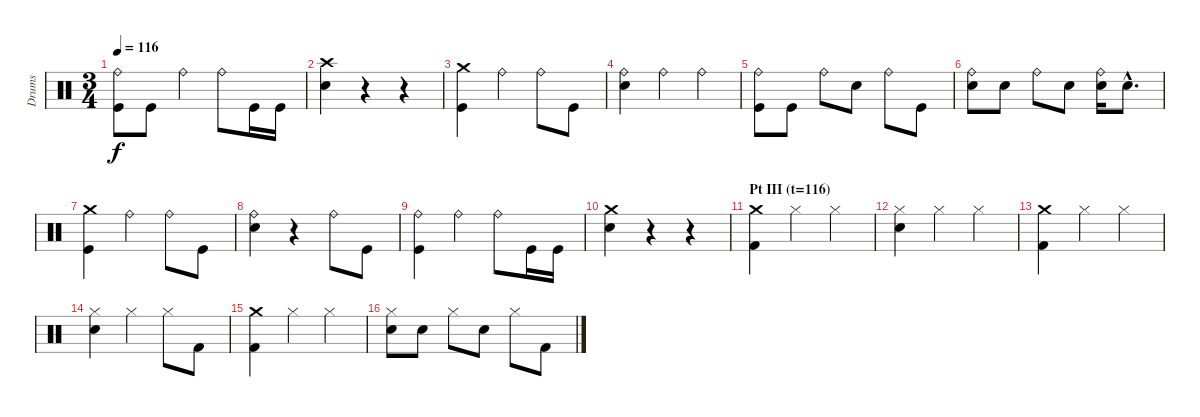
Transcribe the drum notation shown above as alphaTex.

\track ("Drums" "Drums") {instrument percussion}
\staff {score}
\articulation defaults
\ts (3 4)
\tempo 116
\clef neutral
\ks c
("Kick (hit)" "Ride (bell)").8{dy f} "Kick (hit)".8 "Ride (bell)".4 "Ride (bell)".8 "Kick (hit)".16 "Kick (hit)".16 |
("Electric Snare (hit)" "Crash high (hit)").4 r.4 r.4 |
("Kick (hit)" "Crash medium (hit)").4 "Ride (bell)".4 "Ride (bell)".8 "Kick (hit)".8 |
("Electric Snare (hit)" "Ride (bell)").4 "Ride (bell)".4 "Ride (bell)".4 |
("Kick (hit)" "Ride (bell)").8 "Kick (hit)".8 "Ride (bell)".8 "Electric Snare (hit)".8 "Ride (bell)".8 "Kick (hit)".8 |
("Electric Snare (hit)" "Ride (bell)").8 "Electric Snare (hit)".8 "Ride (bell)".8 "Electric Snare (hit)".8 ("Electric Snare (hit)" "Ride (bell)").16 "Electric Snare (hit)"{hac}.8{d} |
("Kick (hit)" "Crash medium (hit)").4 "Ride (bell)".4 "Ride (bell)".8 "Kick (hit)".8 |
("Electric Snare (hit)" "Ride (bell)").4 r.4 "Ride (bell)".8 "Kick (hit)".8 |
("Kick (hit)" "Ride (bell)").4 "Ride (bell)".4 "Ride (bell)".8 "Kick (hit)".16 "Kick (hit)".16 |
("Electric Snare (hit)" "Crash medium (hit)").4 r.4 r.4 |
\section ("" "Pt III (t=116)")
("Kick (hit) 2" "Crash medium (hit)").4 "Hi-Hat (closed)".4 "Hi-Hat (closed)".4 |
("Electric Snare (hit)" "Hi-Hat (closed)").4 "Hi-Hat (closed)".4 "Hi-Hat (closed)".4 |
("Kick (hit) 2" "Crash medium (hit)").4 "Hi-Hat (closed)".4 "Hi-Hat (closed)".4 |
("Electric Snare (hit)" "Hi-Hat (closed)").4 "Hi-Hat (closed)".4 "Hi-Hat (closed)".8 "Kick (hit) 2".8 |
("Kick (hit) 2" "Crash medium (hit)").4 "Hi-Hat (closed)".4 "Hi-Hat (closed)".4 |
("Electric Snare (hit)" "Hi-Hat (closed)").8 "Electric Snare (hit)".8 "Hi-Hat (closed)".8 "Electric Snare (hit)".8 "Hi-Hat (closed)".8 "Kick (hit) 2".8
